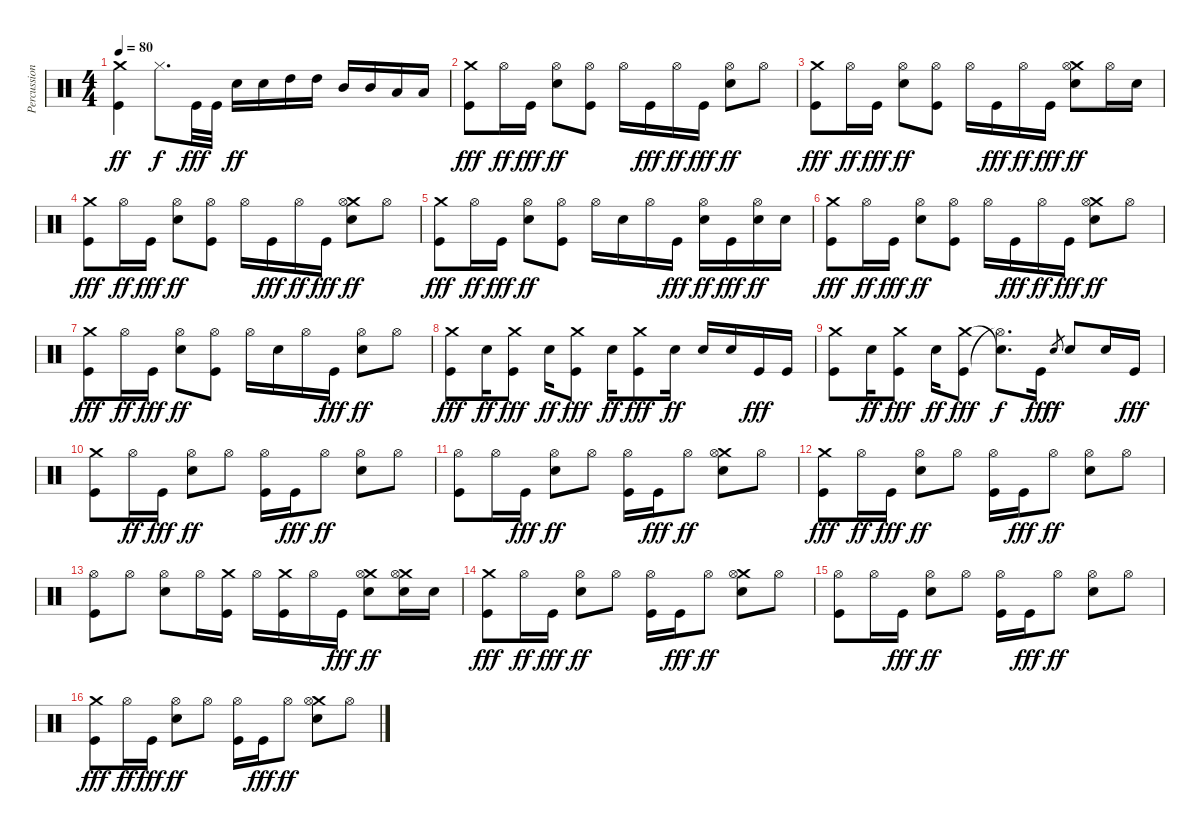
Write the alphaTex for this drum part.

\track ("Percussion" "Percussion") {instrument percussion}
\staff {score}
\articulation defaults
\ts (4 4)
\tempo 80
\clef neutral
\ks c
("Kick (hit)" "Crash medium (hit)").4{dy ff} "Hi-Hat (closed)".8{d dy f} "Kick (hit)".32{dy fff} "Kick (hit)".32 "Snare (hit) 2".16{dy ff} "Snare (hit) 2".16 "High Tom (hit)".16 "High Tom (hit)".16 "Mid Tom (hit)".16 "Mid Tom (hit)".16 "Low Tom (hit)".16 "Low Tom (hit)".16 |
("Kick (hit)" "Crash medium (hit)").8{dy fff} "Hi-Hat (open)".16{dy ff} "Kick (hit)".16{dy fff} ("Snare (hit) 2" "Hi-Hat (open)").8{dy ff} ("Kick (hit)" "Hi-Hat (open)").8 "Hi-Hat (open)".16 "Kick (hit)".16{dy fff} "Hi-Hat (open)".16{dy ff} "Kick (hit)".16{dy fff} ("Snare (hit) 2" "Hi-Hat (open)").8{dy ff} "Hi-Hat (open)".8 |
("Kick (hit)" "Crash medium (hit)").8{dy fff} "Hi-Hat (open)".16{dy ff} "Kick (hit)".16{dy fff} ("Snare (hit) 2" "Hi-Hat (open)").8{dy ff} ("Kick (hit)" "Hi-Hat (open)").8 "Hi-Hat (open)".16 "Kick (hit)".16{dy fff} "Hi-Hat (open)".16{dy ff} "Kick (hit)".16{dy fff} ("Snare (hit) 2" "Crash medium (hit)" "Hi-Hat (open)").8{dy ff} "Hi-Hat (open)".16 "Snare (hit) 2".16 |
("Kick (hit)" "Crash medium (hit)").8{dy fff} "Hi-Hat (open)".16{dy ff} "Kick (hit)".16{dy fff} ("Snare (hit) 2" "Hi-Hat (open)").8{dy ff} ("Kick (hit)" "Hi-Hat (open)").8 "Hi-Hat (open)".16 "Kick (hit)".16{dy fff} "Hi-Hat (open)".16{dy ff} "Kick (hit)".16{dy fff} ("Snare (hit) 2" "Crash medium (hit)" "Hi-Hat (open)").8{dy ff} "Hi-Hat (open)".8 |
("Kick (hit)" "Crash medium (hit)").8{dy fff} "Hi-Hat (open)".16{dy ff} "Kick (hit)".16{dy fff} ("Snare (hit) 2" "Hi-Hat (open)").8{dy ff} ("Kick (hit)" "Hi-Hat (open)").8 "Hi-Hat (open)".16 "Snare (hit) 2".16 "Hi-Hat (open)".16 "Kick (hit)".16{dy fff} ("Snare (hit) 2" "Hi-Hat (open)").16{dy ff} "Kick (hit)".16{dy fff} ("Snare (hit) 2" "Hi-Hat (open)").16{dy ff} "Snare (hit) 2".16 |
("Kick (hit)" "Crash medium (hit)").8{dy fff} "Hi-Hat (open)".16{dy ff} "Kick (hit)".16{dy fff} ("Snare (hit) 2" "Hi-Hat (open)").8{dy ff} ("Kick (hit)" "Hi-Hat (open)").8 "Hi-Hat (open)".16 "Kick (hit)".16{dy fff} "Hi-Hat (open)".16{dy ff} "Kick (hit)".16{dy fff} ("Snare (hit) 2" "Crash medium (hit)" "Hi-Hat (open)").8{dy ff} "Hi-Hat (open)".8 |
("Kick (hit)" "Crash medium (hit)").8{dy fff} "Hi-Hat (open)".16{dy ff} "Kick (hit)".16{dy fff} ("Snare (hit) 2" "Hi-Hat (open)").8{dy ff} ("Kick (hit)" "Hi-Hat (open)").8 "Hi-Hat (open)".16 "Snare (hit) 2".16 "Hi-Hat (open)".16 "Kick (hit)".16{dy fff} ("Snare (hit) 2" "Hi-Hat (open)").8{dy ff} "Hi-Hat (open)".8 |
("Kick (hit)" "Crash medium (hit)").8{dy fff} "Snare (hit) 2".16{dy ff} ("Kick (hit)" "Crash medium (hit)").8{dy fff} "Snare (hit) 2".16{dy ff} ("Kick (hit)" "Crash medium (hit)").8{dy fff} "Snare (hit) 2".16{dy ff} ("Kick (hit)" "Crash medium (hit)").8{dy fff} "Snare (hit) 2".16{dy ff} "Snare (hit) 2".16 "Snare (hit) 2".16 "Kick (hit)".16{dy fff} "Kick (hit)".16 |
("Kick (hit)" "Crash medium (hit)").8 "Snare (hit) 2".16{dy ff} ("Kick (hit)" "Crash medium (hit)").8{dy fff} "Snare (hit) 2".16{dy ff} ("Kick (hit)" "Crash medium (hit)").8{dy fff} ("Hi-Hat (open)"{t} "Snare (hit)"{t}).8{d dy f} "Kick (hit)".16{dy fff} "Snare (hit) 2".8{gr dy ff} "Snare (hit) 2".8 "Snare (hit) 2".16 "Kick (hit)".16{dy fff} |
("Kick (hit)" "Crash medium (hit)").8 "Hi-Hat (open)".16{dy ff} "Kick (hit)".16{dy fff} ("Snare (hit) 2" "Hi-Hat (open)").8{dy ff} "Hi-Hat (open)".8 ("Kick (hit)" "Hi-Hat (open)").16 "Kick (hit)".16{dy fff} "Hi-Hat (open)".8{dy ff} ("Snare (hit) 2" "Hi-Hat (open)").8 "Hi-Hat (open)".8 |
("Kick (hit)" "Hi-Hat (open)").8 "Hi-Hat (open)".16 "Kick (hit)".16{dy fff} ("Snare (hit) 2" "Hi-Hat (open)").8{dy ff} "Hi-Hat (open)".8 ("Kick (hit)" "Hi-Hat (open)").16 "Kick (hit)".16{dy fff} "Hi-Hat (open)".8{dy ff} ("Snare (hit) 2" "Crash medium (hit)" "Hi-Hat (open)").8 "Hi-Hat (open)".8 |
("Kick (hit)" "Crash medium (hit)").8{dy fff} "Hi-Hat (open)".16{dy ff} "Kick (hit)".16{dy fff} ("Snare (hit) 2" "Hi-Hat (open)").8{dy ff} "Hi-Hat (open)".8 ("Kick (hit)" "Hi-Hat (open)").16 "Kick (hit)".16{dy fff} "Hi-Hat (open)".8{dy ff} ("Snare (hit) 2" "Hi-Hat (open)").8 "Hi-Hat (open)".8 |
("Kick (hit)" "Hi-Hat (open)").8 "Hi-Hat (open)".8 ("Snare (hit) 2" "Hi-Hat (open)").8 "Hi-Hat (open)".16 ("Kick (hit)" "Crash medium (hit)").16 "Hi-Hat (open)".16 ("Kick (hit)" "Crash medium (hit)").16 "Hi-Hat (open)".16 "Kick (hit)".16{dy fff} ("Snare (hit) 2" "Crash medium (hit)" "Hi-Hat (open)").8{dy ff} ("Snare (hit) 2" "Crash medium (hit)" "Hi-Hat (open)").16 "Snare (hit) 2".16 |
("Kick (hit)" "Crash medium (hit)").8{dy fff} "Hi-Hat (open)".16{dy ff} "Kick (hit)".16{dy fff} ("Snare (hit) 2" "Hi-Hat (open)").8{dy ff} "Hi-Hat (open)".8 ("Kick (hit)" "Hi-Hat (open)").16 "Kick (hit)".16{dy fff} "Hi-Hat (open)".8{dy ff} ("Snare (hit) 2" "Crash medium (hit)" "Hi-Hat (open)").8 "Hi-Hat (open)".8 |
("Kick (hit)" "Hi-Hat (open)").8 "Hi-Hat (open)".16 "Kick (hit)".16{dy fff} ("Snare (hit) 2" "Hi-Hat (open)").8{dy ff} "Hi-Hat (open)".8 ("Kick (hit)" "Hi-Hat (open)").16 "Kick (hit)".16{dy fff} "Hi-Hat (open)".8{dy ff} ("Snare (hit) 2" "Hi-Hat (open)").8 "Hi-Hat (open)".8 |
("Kick (hit)" "Crash medium (hit)").8{dy fff} "Hi-Hat (open)".16{dy ff} "Kick (hit)".16{dy fff} ("Snare (hit) 2" "Hi-Hat (open)").8{dy ff} "Hi-Hat (open)".8 ("Kick (hit)" "Hi-Hat (open)").16 "Kick (hit)".16{dy fff} "Hi-Hat (open)".8{dy ff} ("Snare (hit) 2" "Crash medium (hit)" "Hi-Hat (open)").8 "Hi-Hat (open)".8
